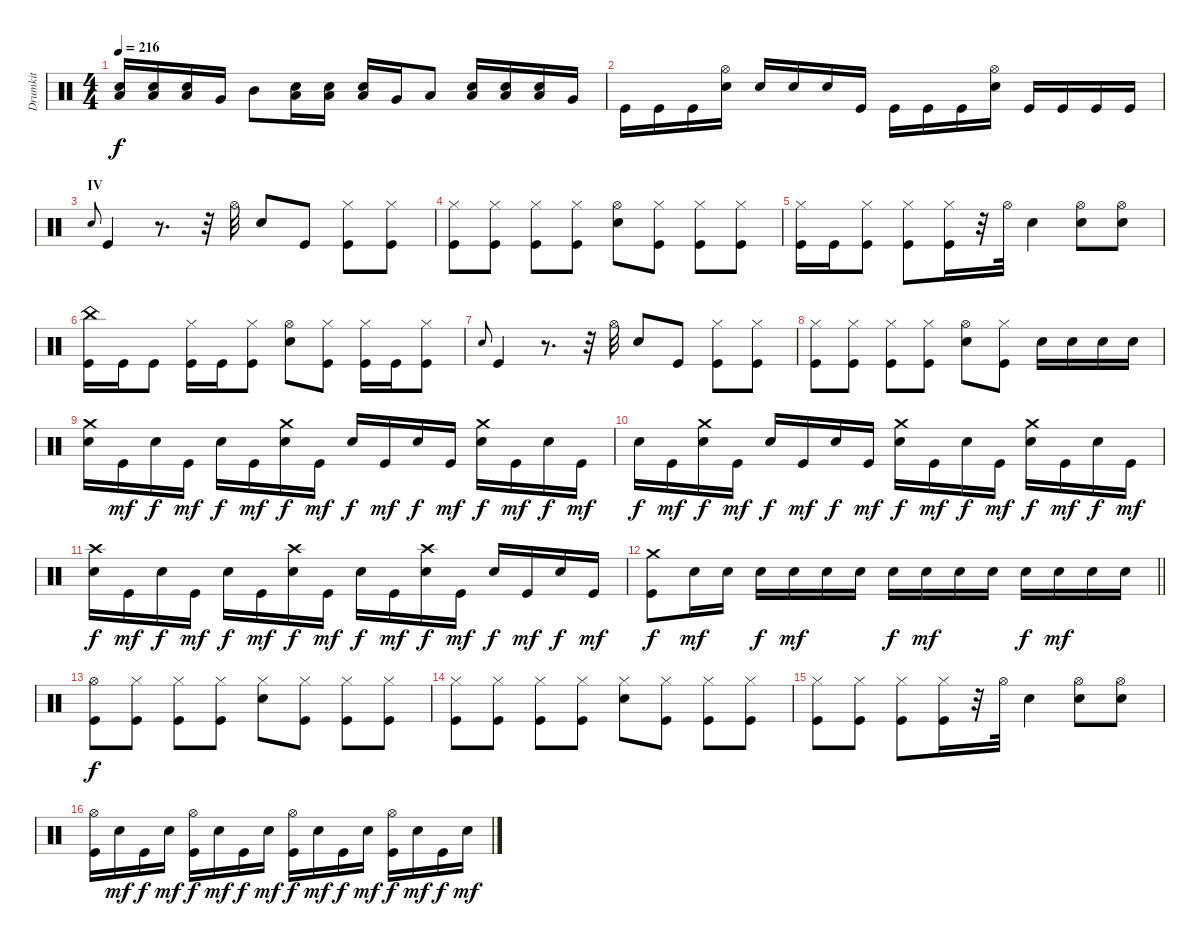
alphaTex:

\track ("Drumkit" "Drumkit") {instrument percussion}
\staff {score}
\articulation defaults
\ts (4 4)
\tempo 216
\clef neutral
\ks c
("Low Tom (hit)" "Snare (hit) 2").16{dy f} ("Low Tom (hit)" "Snare (hit) 2").16 ("Low Tom (hit)" "Snare (hit) 2").16 "Very Low Tom (hit)".16 "Mid Tom (hit)".8 ("Low Tom (hit)" "Snare (hit) 2").16 ("Low Tom (hit)" "Snare (hit) 2").16 ("Low Tom (hit)" "Snare (hit) 2").16 "Very Low Tom (hit)".16 "Low Tom (hit)".8 ("Low Tom (hit)" "Snare (hit) 2").16 ("Low Tom (hit)" "Snare (hit) 2").16 ("Low Tom (hit)" "Snare (hit) 2").16 "Very Low Tom (hit)".16 |
"Kick (hit)".16 "Kick (hit)".16 "Kick (hit)".16 ("Snare (hit) 2" "Hi-Hat (open)").16 "Snare (hit) 2".16 "Snare (hit) 2".16 "Snare (hit) 2".16 "Kick (hit)".16 "Kick (hit)".16 "Kick (hit)".16 "Kick (hit)".16 ("Snare (hit) 2" "Hi-Hat (open)").16 "Kick (hit)".16 "Kick (hit)".16 "Kick (hit)".16 "Kick (hit)".16 |
\section ("" "IV")
"Snare (hit)".8{gr onbeat} "Kick (hit)".4 r.8{d} r.32 "Hi-Hat (open)".32 "Snare (hit) 2".8 "Kick (hit)".8 ("Kick (hit)" "Hi-Hat (closed)").8 ("Kick (hit)" "Hi-Hat (closed)").8 |
("Kick (hit)" "Hi-Hat (closed)").8 ("Kick (hit)" "Hi-Hat (closed)").8 ("Kick (hit)" "Hi-Hat (closed)").8 ("Kick (hit)" "Hi-Hat (closed)").8 ("Snare (hit) 2" "Hi-Hat (open)").8 ("Kick (hit)" "Hi-Hat (closed)").8 ("Kick (hit)" "Hi-Hat (closed)").8 ("Kick (hit)" "Hi-Hat (closed)").8 |
("Kick (hit)" "Hi-Hat (closed)").16 "Kick (hit)".16 ("Kick (hit)" "Hi-Hat (closed)").8 ("Kick (hit)" "Hi-Hat (closed)").8 ("Kick (hit)" "Hi-Hat (closed)").16 r.32 "Hi-Hat (open)".32 "Snare (hit) 2".4 ("Snare (hit) 2" "Hi-Hat (open)").8 ("Snare (hit) 2" "Hi-Hat (open)").8 |
("Kick (hit)" "China (hit)").16 "Kick (hit)".16 "Kick (hit)".8 ("Kick (hit)" "Hi-Hat (closed)").16 "Kick (hit)".16 ("Kick (hit)" "Hi-Hat (closed)").8 ("Hi-Hat (open)" "Snare (hit) 2").8 ("Kick (hit)" "Hi-Hat (closed)").8 ("Kick (hit)" "Hi-Hat (closed)").16 "Kick (hit)".16 ("Kick (hit)" "Hi-Hat (closed)").8 |
"Snare (hit)".8{gr onbeat} "Kick (hit)".4 r.8{d} r.32 "Hi-Hat (open)".32 "Snare (hit) 2".8 "Kick (hit)".8 ("Kick (hit)" "Hi-Hat (closed)").8 ("Kick (hit)" "Hi-Hat (closed)").8 |
("Kick (hit)" "Hi-Hat (closed)").8 ("Kick (hit)" "Hi-Hat (closed)").8 ("Kick (hit)" "Hi-Hat (closed)").8 ("Kick (hit)" "Hi-Hat (closed)").8 ("Snare (hit) 2" "Hi-Hat (open)").8 ("Kick (hit)" "Hi-Hat (closed)").8 "Snare (hit) 2".16 "Snare (hit) 2".16 "Snare (hit) 2".16 "Snare (hit) 2".16 |
("Snare (hit) 2" "Crash medium (hit)").16 "Kick (hit)".16{dy mf} "Snare (hit) 2".16{dy f} "Kick (hit)".16{dy mf} "Snare (hit) 2".16{dy f} "Kick (hit)".16{dy mf} ("Snare (hit) 2" "Crash medium (hit)").16{dy f} "Kick (hit)".16{dy mf} "Snare (hit) 2".16{dy f} "Kick (hit)".16{dy mf} "Snare (hit) 2".16{dy f} "Kick (hit)".16{dy mf} ("Snare (hit) 2" "Crash medium (hit)").16{dy f} "Kick (hit)".16{dy mf} "Snare (hit) 2".16{dy f} "Kick (hit)".16{dy mf} |
"Snare (hit) 2".16{dy f} "Kick (hit)".16{dy mf} ("Snare (hit) 2" "Crash medium (hit)").16{dy f} "Kick (hit)".16{dy mf} "Snare (hit) 2".16{dy f} "Kick (hit)".16{dy mf} "Snare (hit) 2".16{dy f} "Kick (hit)".16{dy mf} ("Snare (hit) 2" "Crash medium (hit)").16{dy f} "Kick (hit)".16{dy mf} "Snare (hit) 2".16{dy f} "Kick (hit)".16{dy mf} ("Snare (hit) 2" "Crash medium (hit)").16{dy f} "Kick (hit)".16{dy mf} "Snare (hit) 2".16{dy f} "Kick (hit)".16{dy mf} |
("Snare (hit) 2" "Crash high (hit)").16{dy f} "Kick (hit)".16{dy mf} "Snare (hit) 2".16{dy f} "Kick (hit)".16{dy mf} "Snare (hit) 2".16{dy f} "Kick (hit)".16{dy mf} ("Snare (hit) 2" "Crash high (hit)").16{dy f} "Kick (hit)".16{dy mf} "Snare (hit) 2".16{dy f} "Kick (hit)".16{dy mf} ("Snare (hit) 2" "Crash high (hit)").16{dy f} "Kick (hit)".16{dy mf} "Snare (hit) 2".16{dy f} "Kick (hit)".16{dy mf} "Snare (hit) 2".16{dy f} "Kick (hit)".16{dy mf} |
\barLineRight lightlight
("Kick (hit)" "Crash medium (hit)").8{dy f} "Snare (hit) 2".16{dy mf} "Snare (hit) 2".16 "Snare (hit) 2".16{dy f} "Snare (hit) 2".16{dy mf} "Snare (hit) 2".16 "Snare (hit) 2".16 "Snare (hit) 2".16{dy f} "Snare (hit) 2".16{dy mf} "Snare (hit) 2".16 "Snare (hit) 2".16 "Snare (hit) 2".16{dy f} "Snare (hit) 2".16{dy mf} "Snare (hit) 2".16 "Snare (hit) 2".16 |
("Kick (hit)" "Hi-Hat (open)").8{dy f} ("Kick (hit)" "Hi-Hat (closed)").8 ("Kick (hit)" "Hi-Hat (closed)").8 ("Kick (hit)" "Hi-Hat (closed)").8 ("Snare (hit) 2" "Hi-Hat (closed)").8 ("Kick (hit)" "Hi-Hat (closed)").8 ("Kick (hit)" "Hi-Hat (closed)").8 ("Kick (hit)" "Hi-Hat (closed)").8 |
("Kick (hit)" "Hi-Hat (closed)").8 ("Kick (hit)" "Hi-Hat (closed)").8 ("Kick (hit)" "Hi-Hat (closed)").8 ("Kick (hit)" "Hi-Hat (closed)").8 ("Snare (hit) 2" "Hi-Hat (closed)").8 ("Kick (hit)" "Hi-Hat (closed)").8 ("Kick (hit)" "Hi-Hat (closed)").8 ("Kick (hit)" "Hi-Hat (closed)").8 |
("Kick (hit)" "Hi-Hat (closed)").8 ("Kick (hit)" "Hi-Hat (closed)").8 ("Kick (hit)" "Hi-Hat (closed)").8 ("Kick (hit)" "Hi-Hat (closed)").16 r.32 "Hi-Hat (open)".32 "Snare (hit) 2".4 ("Snare (hit) 2" "Hi-Hat (open)").8 ("Snare (hit) 2" "Hi-Hat (open)").8 |
("Hi-Hat (open)" "Kick (hit)").16 "Snare (hit) 2".16{dy mf} "Kick (hit)".16{dy f} "Snare (hit) 2".16{dy mf} ("Hi-Hat (open)" "Kick (hit)").16{dy f} "Snare (hit) 2".16{dy mf} "Kick (hit)".16{dy f} "Snare (hit) 2".16{dy mf} ("Hi-Hat (open)" "Kick (hit)").16{dy f} "Snare (hit) 2".16{dy mf} "Kick (hit)".16{dy f} "Snare (hit) 2".16{dy mf} ("Hi-Hat (open)" "Kick (hit)").16{dy f} "Snare (hit) 2".16{dy mf} "Kick (hit)".16{dy f} "Snare (hit) 2".16{dy mf}
